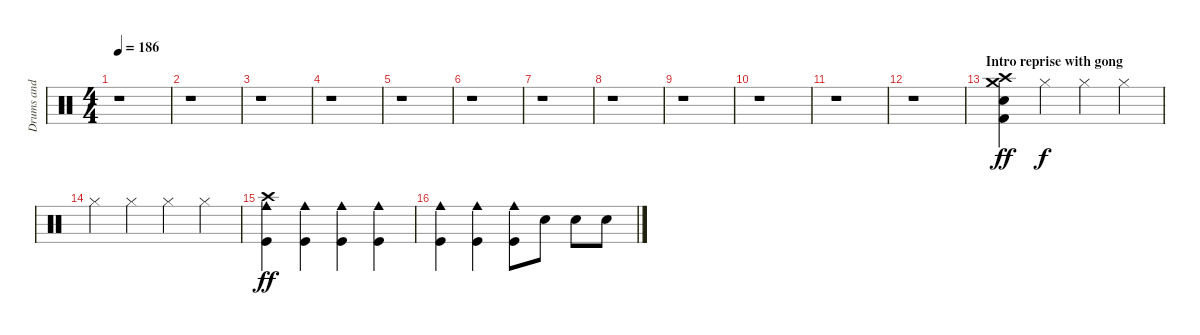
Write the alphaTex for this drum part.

\track ("Drums and Percs" "Drums and ") {instrument percussion}
\staff {score}
\articulation defaults
\ts (4 4)
\tempo 186
\clef neutral
\ks c
r.1{dy f} |
r.1 |
r.1 |
r.1 |
r.1 |
r.1 |
r.1 |
r.1 |
r.1 |
r.1 |
r.1 |
r.1 |
\section ("" "Intro reprise with gong")
("Crash high (hit)" "Crash medium (hit)" "Electric Snare (hit)" "Kick (hit) 2").4{dy ff} "Hi-Hat (closed)".4{dy f} "Hi-Hat (closed)".4 "Hi-Hat (closed)".4 |
"Hi-Hat (closed)".4 "Hi-Hat (closed)".4 "Hi-Hat (closed)".4 "Hi-Hat (closed)".4 |
("Cowbell medium (hit)" "Crash high (hit)" "Kick (hit)").4{dy ff} ("Cowbell medium (hit)" "Kick (hit)").4 ("Cowbell medium (hit)" "Kick (hit)").4 ("Cowbell medium (hit)" "Kick (hit)").4 |
("Cowbell medium (hit)" "Kick (hit)").4 ("Cowbell medium (hit)" "Kick (hit)").4 ("Cowbell medium (hit)" "Kick (hit)").8 "Electric Snare (hit)".8 "Electric Snare (hit)".8 "Electric Snare (hit)".8
